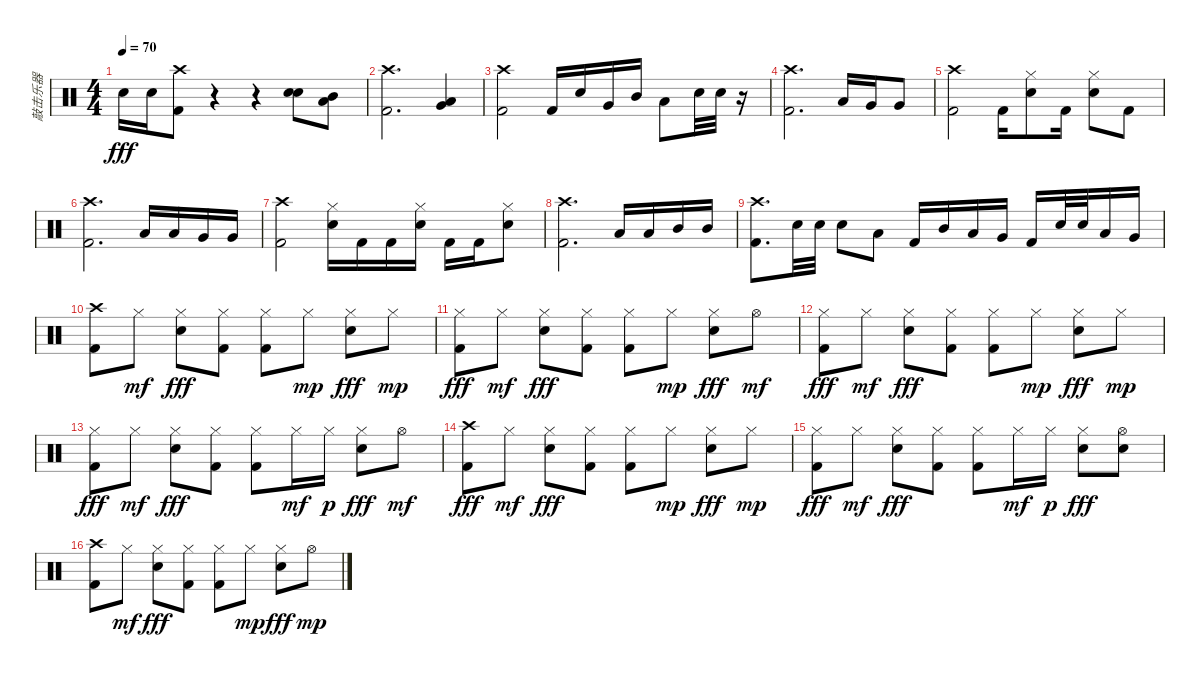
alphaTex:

\track ("敲击乐器" "敲击乐器") {instrument percussion}
\staff {score}
\articulation defaults
\ts (4 4)
\tempo 70
\clef neutral
\ks c "Electric Snare (hit)".16{dy fff} "Electric Snare (hit)".16
("Crash high (hit)" "Kick (hit) 2").8 r.4 r.4 ("Electric Snare (hit)" "Electric Snare (hit)").8 ("Low Tom (hit)" "Mid Tom (hit)").8 |
("Crash high (hit)" "Kick (hit) 2").2{d} ("Low Tom (hit)" "Very Low Tom (hit)").4 |
("Crash high (hit)" "Kick (hit) 2").2 "Kick (hit) 2".16 "Electric Snare (hit)".16 "Very Low Tom (hit)".16 "Mid Tom (hit)".16 "Low Tom (hit)".8 "Electric Snare (hit)".32 "Electric Snare (hit)".32 r.16 |
("Crash high (hit)" "Kick (hit) 2").2{d} "Low Tom (hit)".16 "Very Low Tom (hit)".16 "Very Low Tom (hit)".8 |
("Crash high (hit)" "Kick (hit) 2").2 "Kick (hit) 2".16 ("Hi-Hat (closed)" "Electric Snare (hit)").8 "Kick (hit) 2".16 ("Hi-Hat (closed)" "Electric Snare (hit)").8 "Kick (hit) 2".8 |
("Crash high (hit)" "Kick (hit) 2").2{d} "Low Tom (hit)".16 "Low Tom (hit)".16 "Very Low Tom (hit)".16 "Very Low Tom (hit)".16 |
("Crash high (hit)" "Kick (hit) 2").2 ("Hi-Hat (closed)" "Electric Snare (hit)").16 "Kick (hit) 2".16 "Kick (hit) 2".16 ("Hi-Hat (closed)" "Electric Snare (hit)").16 "Kick (hit) 2".16 "Kick (hit) 2".16 ("Hi-Hat (closed)" "Electric Snare (hit)").8 |
("Crash high (hit)" "Kick (hit) 2").2{d} "Low Tom (hit)".16 "Low Tom (hit)".16 "Mid Tom (hit)".16 "Mid Tom (hit)".16 |
("Crash high (hit)" "Kick (hit) 2").8{d} "Electric Snare (hit)".32 "Electric Snare (hit)".32 "Electric Snare (hit)".8 "Low Tom (hit)".8 "Kick (hit) 2".16 "Mid Tom (hit)".16 "Low Tom (hit)".16 "Very Low Tom (hit)".16 "Kick (hit) 2".16 "Electric Snare (hit)".32 "Electric Snare (hit)".32 "Low Tom (hit)".16 "Very Low Tom (hit)".16 |
("Crash high (hit)" "Kick (hit) 2").8 "Hi-Hat (closed)".8{dy mf} ("Hi-Hat (closed)" "Electric Snare (hit)").8{dy fff} ("Hi-Hat (closed)" "Kick (hit) 2").8 ("Hi-Hat (closed)" "Kick (hit) 2").8 "Hi-Hat (closed)".8{dy mp} ("Hi-Hat (closed)" "Electric Snare (hit)").8{dy fff} "Hi-Hat (closed)".8{dy mp} |
("Hi-Hat (closed)" "Kick (hit) 2").8{dy fff} "Hi-Hat (closed)".8{dy mf} ("Hi-Hat (closed)" "Electric Snare (hit)").8{dy fff} ("Hi-Hat (closed)" "Kick (hit) 2").8 ("Hi-Hat (closed)" "Kick (hit) 2").8 "Hi-Hat (closed)".8{dy mp} ("Hi-Hat (closed)" "Electric Snare (hit)").8{dy fff} "Hi-Hat (open)".8{dy mf} |
("Hi-Hat (closed)" "Kick (hit) 2").8{dy fff} "Hi-Hat (closed)".8{dy mf} ("Hi-Hat (closed)" "Electric Snare (hit)").8{dy fff} ("Hi-Hat (closed)" "Kick (hit) 2").8 ("Hi-Hat (closed)" "Kick (hit) 2").8 "Hi-Hat (closed)".8{dy mp} ("Hi-Hat (closed)" "Electric Snare (hit)").8{dy fff} "Hi-Hat (closed)".8{dy mp} |
("Hi-Hat (closed)" "Kick (hit) 2").8{dy fff} "Hi-Hat (closed)".8{dy mf} ("Hi-Hat (closed)" "Electric Snare (hit)").8{dy fff} ("Hi-Hat (closed)" "Kick (hit) 2").8 ("Hi-Hat (closed)" "Kick (hit) 2").8 "Hi-Hat (closed)".16{dy mf} "Hi-Hat (closed)".16{dy p} ("Hi-Hat (closed)" "Electric Snare (hit)").8{dy fff} "Hi-Hat (open)".8{dy mf} |
("Crash high (hit)" "Kick (hit) 2").8{dy fff} "Hi-Hat (closed)".8{dy mf} ("Hi-Hat (closed)" "Electric Snare (hit)").8{dy fff} ("Hi-Hat (closed)" "Kick (hit) 2").8 ("Hi-Hat (closed)" "Kick (hit) 2").8 "Hi-Hat (closed)".8{dy mp} ("Hi-Hat (closed)" "Electric Snare (hit)").8{dy fff} "Hi-Hat (closed)".8{dy mp} |
("Hi-Hat (closed)" "Kick (hit) 2").8{dy fff} "Hi-Hat (closed)".8{dy mf} ("Hi-Hat (closed)" "Electric Snare (hit)").8{dy fff} ("Hi-Hat (closed)" "Kick (hit) 2").8 ("Hi-Hat (closed)" "Kick (hit) 2").8 "Hi-Hat (closed)".16{dy mf} "Hi-Hat (closed)".16{dy p} ("Hi-Hat (closed)" "Electric Snare (hit)").8{dy fff} ("Hi-Hat (open)" "Electric Snare (hit)").8 |
("Crash high (hit)" "Kick (hit) 2").8 "Hi-Hat (closed)".8{dy mf} ("Hi-Hat (closed)" "Electric Snare (hit)").8{dy fff} ("Hi-Hat (closed)" "Kick (hit) 2").8 ("Hi-Hat (closed)" "Kick (hit) 2").8 "Hi-Hat (closed)".8{dy mp} ("Hi-Hat (closed)" "Electric Snare (hit)").8{dy fff} "Hi-Hat (open)".8{dy mp}
